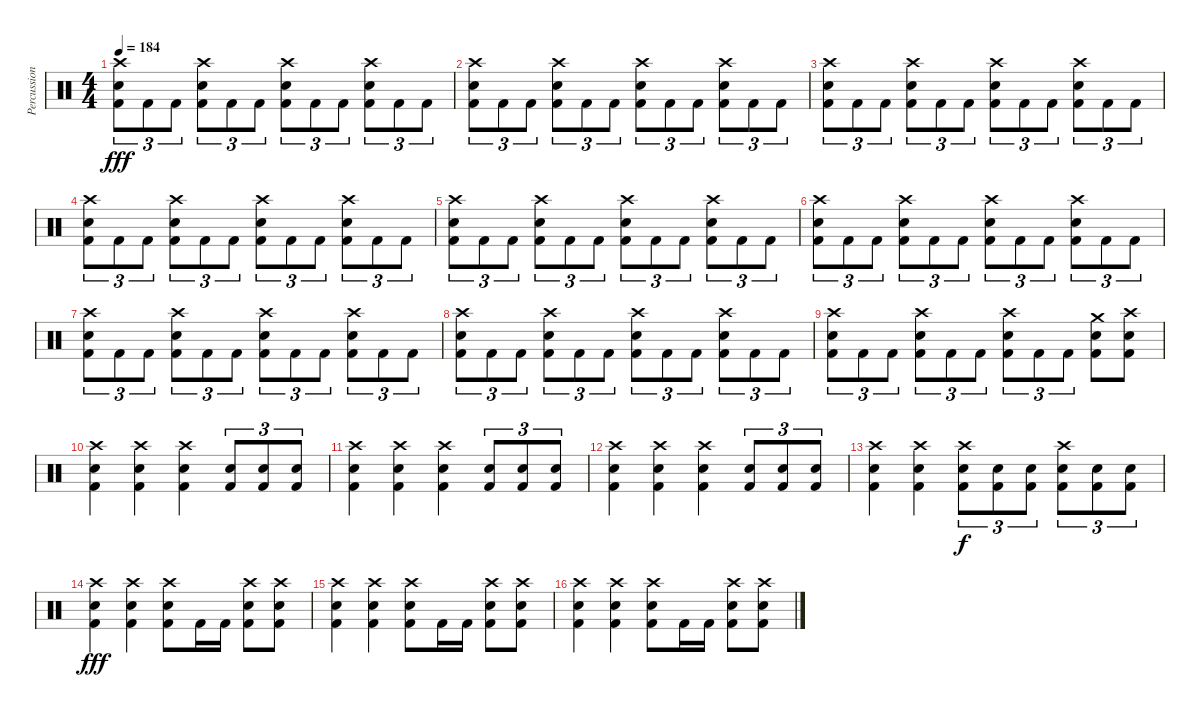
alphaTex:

\track ("Percussion" "Percussion") {instrument percussion}
\staff {score}
\articulation defaults
\ts (4 4)
\tempo 184
\clef neutral
\ks c
("Crash high (hit)" "Snare (hit) 2" "Kick (hit) 2").8{tu (3 2) dy fff} "Kick (hit) 2".8{tu (3 2)} "Kick (hit) 2".8{tu (3 2)} ("Crash high (hit)" "Snare (hit) 2" "Kick (hit) 2").8{tu (3 2)} "Kick (hit) 2".8{tu (3 2)} "Kick (hit) 2".8{tu (3 2)} ("Crash high (hit)" "Snare (hit) 2" "Kick (hit) 2").8{tu (3 2)} "Kick (hit) 2".8{tu (3 2)} "Kick (hit) 2".8{tu (3 2)} ("Crash high (hit)" "Snare (hit) 2" "Kick (hit) 2").8{tu (3 2)} "Kick (hit) 2".8{tu (3 2)} "Kick (hit) 2".8{tu (3 2)} |
("Crash high (hit)" "Snare (hit) 2" "Kick (hit) 2").8{tu (3 2)} "Kick (hit) 2".8{tu (3 2)} "Kick (hit) 2".8{tu (3 2)} ("Crash high (hit)" "Snare (hit) 2" "Kick (hit) 2").8{tu (3 2)} "Kick (hit) 2".8{tu (3 2)} "Kick (hit) 2".8{tu (3 2)} ("Crash high (hit)" "Snare (hit) 2" "Kick (hit) 2").8{tu (3 2)} "Kick (hit) 2".8{tu (3 2)} "Kick (hit) 2".8{tu (3 2)} ("Crash high (hit)" "Snare (hit) 2" "Kick (hit) 2").8{tu (3 2)} "Kick (hit) 2".8{tu (3 2)} "Kick (hit) 2".8{tu (3 2)} |
("Crash high (hit)" "Snare (hit) 2" "Kick (hit) 2").8{tu (3 2)} "Kick (hit) 2".8{tu (3 2)} "Kick (hit) 2".8{tu (3 2)} ("Crash high (hit)" "Snare (hit) 2" "Kick (hit) 2").8{tu (3 2)} "Kick (hit) 2".8{tu (3 2)} "Kick (hit) 2".8{tu (3 2)} ("Crash high (hit)" "Snare (hit) 2" "Kick (hit) 2").8{tu (3 2)} "Kick (hit) 2".8{tu (3 2)} "Kick (hit) 2".8{tu (3 2)} ("Crash high (hit)" "Snare (hit) 2" "Kick (hit) 2").8{tu (3 2)} "Kick (hit) 2".8{tu (3 2)} "Kick (hit) 2".8{tu (3 2)} |
("Crash high (hit)" "Snare (hit) 2" "Kick (hit) 2").8{tu (3 2)} "Kick (hit) 2".8{tu (3 2)} "Kick (hit) 2".8{tu (3 2)} ("Crash high (hit)" "Snare (hit) 2" "Kick (hit) 2").8{tu (3 2)} "Kick (hit) 2".8{tu (3 2)} "Kick (hit) 2".8{tu (3 2)} ("Crash high (hit)" "Snare (hit) 2" "Kick (hit) 2").8{tu (3 2)} "Kick (hit) 2".8{tu (3 2)} "Kick (hit) 2".8{tu (3 2)} ("Crash high (hit)" "Snare (hit) 2" "Kick (hit) 2").8{tu (3 2)} "Kick (hit) 2".8{tu (3 2)} "Kick (hit) 2".8{tu (3 2)} |
("Crash high (hit)" "Snare (hit) 2" "Kick (hit) 2").8{tu (3 2)} "Kick (hit) 2".8{tu (3 2)} "Kick (hit) 2".8{tu (3 2)} ("Crash high (hit)" "Snare (hit) 2" "Kick (hit) 2").8{tu (3 2)} "Kick (hit) 2".8{tu (3 2)} "Kick (hit) 2".8{tu (3 2)} ("Crash high (hit)" "Snare (hit) 2" "Kick (hit) 2").8{tu (3 2)} "Kick (hit) 2".8{tu (3 2)} "Kick (hit) 2".8{tu (3 2)} ("Crash high (hit)" "Snare (hit) 2" "Kick (hit) 2").8{tu (3 2)} "Kick (hit) 2".8{tu (3 2)} "Kick (hit) 2".8{tu (3 2)} |
("Crash high (hit)" "Snare (hit) 2" "Kick (hit) 2").8{tu (3 2)} "Kick (hit) 2".8{tu (3 2)} "Kick (hit) 2".8{tu (3 2)} ("Crash high (hit)" "Snare (hit) 2" "Kick (hit) 2").8{tu (3 2)} "Kick (hit) 2".8{tu (3 2)} "Kick (hit) 2".8{tu (3 2)} ("Crash high (hit)" "Snare (hit) 2" "Kick (hit) 2").8{tu (3 2)} "Kick (hit) 2".8{tu (3 2)} "Kick (hit) 2".8{tu (3 2)} ("Crash high (hit)" "Snare (hit) 2" "Kick (hit) 2").8{tu (3 2)} "Kick (hit) 2".8{tu (3 2)} "Kick (hit) 2".8{tu (3 2)} |
("Crash high (hit)" "Snare (hit) 2" "Kick (hit) 2").8{tu (3 2)} "Kick (hit) 2".8{tu (3 2)} "Kick (hit) 2".8{tu (3 2)} ("Crash high (hit)" "Snare (hit) 2" "Kick (hit) 2").8{tu (3 2)} "Kick (hit) 2".8{tu (3 2)} "Kick (hit) 2".8{tu (3 2)} ("Crash high (hit)" "Snare (hit) 2" "Kick (hit) 2").8{tu (3 2)} "Kick (hit) 2".8{tu (3 2)} "Kick (hit) 2".8{tu (3 2)} ("Crash high (hit)" "Snare (hit) 2" "Kick (hit) 2").8{tu (3 2)} "Kick (hit) 2".8{tu (3 2)} "Kick (hit) 2".8{tu (3 2)} |
("Crash high (hit)" "Snare (hit) 2" "Kick (hit) 2").8{tu (3 2)} "Kick (hit) 2".8{tu (3 2)} "Kick (hit) 2".8{tu (3 2)} ("Crash high (hit)" "Snare (hit) 2" "Kick (hit) 2").8{tu (3 2)} "Kick (hit) 2".8{tu (3 2)} "Kick (hit) 2".8{tu (3 2)} ("Crash high (hit)" "Snare (hit) 2" "Kick (hit) 2").8{tu (3 2)} "Kick (hit) 2".8{tu (3 2)} "Kick (hit) 2".8{tu (3 2)} ("Crash high (hit)" "Snare (hit) 2" "Kick (hit) 2").8{tu (3 2)} "Kick (hit) 2".8{tu (3 2)} "Kick (hit) 2".8{tu (3 2)} |
("Crash high (hit)" "Snare (hit) 2" "Kick (hit) 2").8{tu (3 2)} "Kick (hit) 2".8{tu (3 2)} "Kick (hit) 2".8{tu (3 2)} ("Crash high (hit)" "Snare (hit) 2" "Kick (hit) 2").8{tu (3 2)} "Kick (hit) 2".8{tu (3 2)} "Kick (hit) 2".8{tu (3 2)} ("Crash high (hit)" "Snare (hit) 2" "Kick (hit) 2").8{tu (3 2)} "Kick (hit) 2".8{tu (3 2)} "Kick (hit) 2".8{tu (3 2)} ("Crash medium (hit)" "Snare (hit) 2" "Kick (hit) 2").8 ("Crash high (hit)" "Snare (hit) 2" "Kick (hit) 2").8 |
("Crash high (hit)" "Snare (hit) 2" "Kick (hit) 2").4 ("Crash high (hit)" "Snare (hit) 2" "Kick (hit) 2").4 ("Crash high (hit)" "Snare (hit) 2" "Kick (hit) 2").4 ("Snare (hit) 2" "Kick (hit) 2").8{tu (3 2)} ("Snare (hit) 2" "Kick (hit) 2").8{tu (3 2)} ("Snare (hit) 2" "Kick (hit) 2").8{tu (3 2)} |
("Crash high (hit)" "Snare (hit) 2" "Kick (hit) 2").4 ("Crash high (hit)" "Snare (hit) 2" "Kick (hit) 2").4 ("Crash high (hit)" "Snare (hit) 2" "Kick (hit) 2").4 ("Snare (hit) 2" "Kick (hit) 2").8{tu (3 2)} ("Snare (hit) 2" "Kick (hit) 2").8{tu (3 2)} ("Snare (hit) 2" "Kick (hit) 2").8{tu (3 2)} |
("Crash high (hit)" "Snare (hit) 2" "Kick (hit) 2").4 ("Crash high (hit)" "Snare (hit) 2" "Kick (hit) 2").4 ("Crash high (hit)" "Snare (hit) 2" "Kick (hit) 2").4 ("Snare (hit) 2" "Kick (hit) 2").8{tu (3 2)} ("Snare (hit) 2" "Kick (hit) 2").8{tu (3 2)} ("Snare (hit) 2" "Kick (hit) 2").8{tu (3 2)} |
("Crash high (hit)" "Snare (hit) 2" "Kick (hit) 2").4 ("Crash high (hit)" "Snare (hit) 2" "Kick (hit) 2").4 ("Crash high (hit)" "Snare (hit) 2" "Kick (hit) 2").8{tu (3 2) dy f} ("Snare (hit) 2" "Kick (hit) 2").8{tu (3 2)} ("Snare (hit) 2" "Kick (hit) 2").8{tu (3 2)} ("Crash high (hit)" "Snare (hit) 2" "Kick (hit) 2").8{tu (3 2)} ("Snare (hit) 2" "Kick (hit) 2").8{tu (3 2)} ("Snare (hit) 2" "Kick (hit) 2").8{tu (3 2)} |
("Crash high (hit)" "Snare (hit) 2" "Kick (hit) 2").4{dy fff} ("Crash high (hit)" "Snare (hit) 2" "Kick (hit) 2").4 ("Crash high (hit)" "Snare (hit) 2" "Kick (hit) 2").8 "Kick (hit) 2".16 "Kick (hit) 2".16 ("Crash high (hit)" "Snare (hit) 2" "Kick (hit) 2").8 ("Crash high (hit)" "Snare (hit) 2" "Kick (hit) 2").8 |
("Crash high (hit)" "Snare (hit) 2" "Kick (hit) 2").4 ("Crash high (hit)" "Snare (hit) 2" "Kick (hit) 2").4 ("Crash high (hit)" "Snare (hit) 2" "Kick (hit) 2").8 "Kick (hit) 2".16 "Kick (hit) 2".16 ("Crash high (hit)" "Snare (hit) 2" "Kick (hit) 2").8 ("Crash high (hit)" "Snare (hit) 2" "Kick (hit) 2").8 |
("Crash high (hit)" "Snare (hit) 2" "Kick (hit) 2").4 ("Crash high (hit)" "Snare (hit) 2" "Kick (hit) 2").4 ("Crash high (hit)" "Snare (hit) 2" "Kick (hit) 2").8 "Kick (hit) 2".16 "Kick (hit) 2".16 ("Crash high (hit)" "Snare (hit) 2" "Kick (hit) 2").8 ("Crash high (hit)" "Snare (hit) 2" "Kick (hit) 2").8
